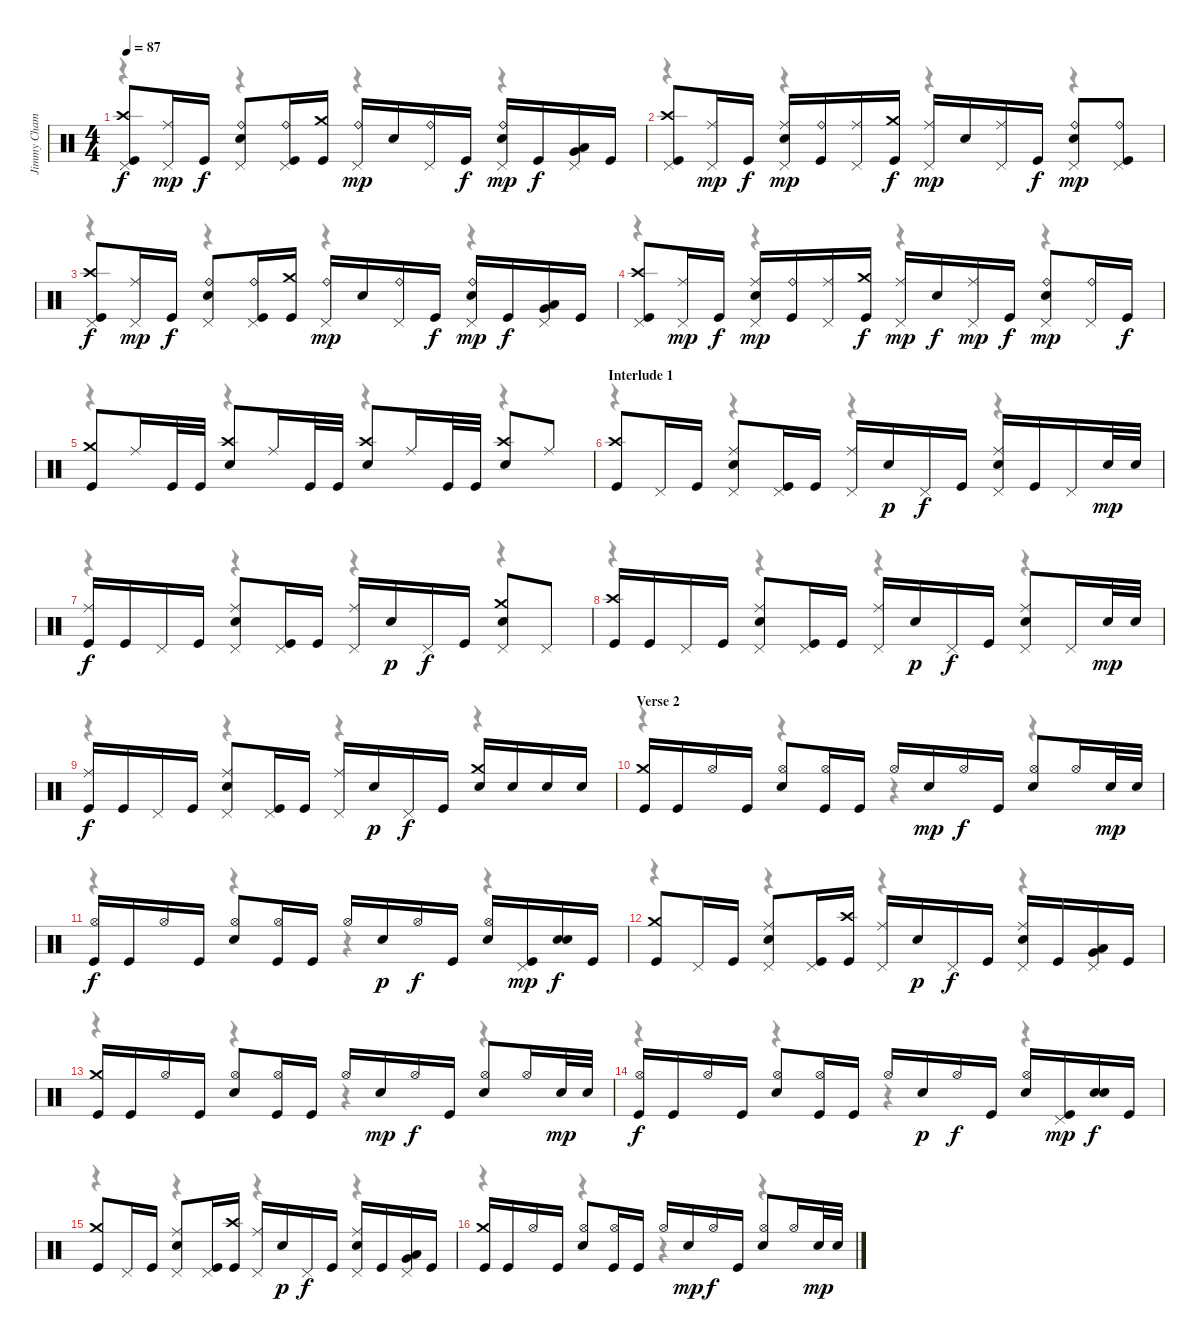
\track ("Jimmy Chamberlin - Drums" "Jimmy Cham") {instrument percussion}
\staff {score}
\articulation defaults
\voice
\ts (4 4)
\tempo 87
\clef neutral
\ks c
("Crash high (hit)" "Pedal Hi-Hat (hit)" "Kick (hit)").8{dy f} ("Ride (middle)" "Pedal Hi-Hat (hit)").16{dy mp} "Kick (hit)".16{dy f} ("Ride (bell)" "Pedal Hi-Hat (hit)" "Snare (hit) 2").8 ("Ride (bell)" "Pedal Hi-Hat (hit)" "Kick (hit)").16 ("Crash medium (hit)" "Kick (hit)").16 ("Ride (bell)" "Pedal Hi-Hat (hit)").16{dy mp} "Snare (hit) 2".16 ("Ride (bell)" "Pedal Hi-Hat (hit)").16 "Kick (hit)".16{dy f} ("Ride (bell)" "Pedal Hi-Hat (hit)" "Snare (hit) 2").16{dy mp} "Kick (hit)".16{dy f} ("Pedal Hi-Hat (hit)" "Low Tom (hit)" "Very Low Tom (hit)").16 "Kick (hit)".16 |
("Crash high (hit)" "Pedal Hi-Hat (hit)" "Kick (hit)").8 ("Ride (middle)" "Pedal Hi-Hat (hit)").16{dy mp} "Kick (hit)".16{dy f} ("Ride (middle)" "Pedal Hi-Hat (hit)" "Snare (hit) 2").16{dy mp} ("Ride (bell)" "Kick (hit)").16 ("Ride (middle)" "Pedal Hi-Hat (hit)").16 ("Crash medium (hit)" "Kick (hit)").16{dy f} ("Ride (middle)" "Pedal Hi-Hat (hit)").16{dy mp} "Snare (hit) 2".16 ("Ride (middle)" "Pedal Hi-Hat (hit)").16 "Kick (hit)".16{dy f} ("Ride (bell)" "Pedal Hi-Hat (hit)" "Snare (hit) 2").8{dy mp} ("Ride (bell)" "Pedal Hi-Hat (hit)" "Kick (hit)").8 |
("Crash high (hit)" "Pedal Hi-Hat (hit)" "Kick (hit)").8{dy f} ("Ride (middle)" "Pedal Hi-Hat (hit)").16{dy mp} "Kick (hit)".16{dy f} ("Ride (bell)" "Pedal Hi-Hat (hit)" "Snare (hit) 2").8 ("Ride (bell)" "Pedal Hi-Hat (hit)" "Kick (hit)").16 ("Crash medium (hit)" "Kick (hit)").16 ("Ride (bell)" "Pedal Hi-Hat (hit)").16{dy mp} "Snare (hit) 2".16 ("Ride (bell)" "Pedal Hi-Hat (hit)").16 "Kick (hit)".16{dy f} ("Ride (bell)" "Pedal Hi-Hat (hit)" "Snare (hit) 2").16{dy mp} "Kick (hit)".16{dy f} ("Pedal Hi-Hat (hit)" "Low Tom (hit)" "Very Low Tom (hit)").16 "Kick (hit)".16 |
("Crash high (hit)" "Pedal Hi-Hat (hit)" "Kick (hit)").8 ("Ride (middle)" "Pedal Hi-Hat (hit)").16{dy mp} "Kick (hit)".16{dy f} ("Ride (middle)" "Pedal Hi-Hat (hit)" "Snare (hit) 2").16{dy mp} ("Ride (bell)" "Kick (hit)").16 ("Ride (middle)" "Pedal Hi-Hat (hit)").16 ("Crash medium (hit)" "Kick (hit)").16{dy f} ("Ride (middle)" "Pedal Hi-Hat (hit)").16{dy mp} "Snare (hit) 2".16{dy f} ("Ride (middle)" "Pedal Hi-Hat (hit)").16{dy mp} "Kick (hit)".16{dy f} ("Ride (bell)" "Pedal Hi-Hat (hit)" "Snare (hit) 2").8{dy mp} ("Ride (bell)" "Pedal Hi-Hat (hit)").16 "Kick (hit)".16{dy f} |
("Crash medium (hit)" "Kick (hit)").8 "Ride (middle)".16 "Kick (hit)".32 "Kick (hit)".32 ("Crash high (hit)" "Snare (hit) 2").8 "Ride (middle)".16 "Kick (hit)".32 "Kick (hit)".32 ("Crash high (hit)" "Snare (hit) 2").8 "Ride (middle)".16 "Kick (hit)".32 "Kick (hit)".32 ("Crash high (hit)" "Snare (hit) 2").8 "Ride (middle)".8 |
\section ("" "Interlude 1")
("Crash high (hit)" "Kick (hit)").8 "Pedal Hi-Hat (hit)".16 "Kick (hit)".16 ("Ride (middle)" "Pedal Hi-Hat (hit)" "Snare (hit) 2").8 ("Pedal Hi-Hat (hit)" "Kick (hit)").16 "Kick (hit)".16 ("Ride (middle)" "Pedal Hi-Hat (hit)").16 "Snare (hit) 2".16{dy p} "Pedal Hi-Hat (hit)".16{dy f} "Kick (hit)".16 ("Ride (middle)" "Pedal Hi-Hat (hit)" "Snare (hit) 2").16 "Kick (hit)".16 "Pedal Hi-Hat (hit)".16 "Snare (hit) 2".32{dy mp} "Snare (hit) 2".32 |
("Ride (middle)" "Kick (hit)").16{dy f} "Kick (hit)".16 "Pedal Hi-Hat (hit)".16 "Kick (hit)".16 ("Ride (middle)" "Pedal Hi-Hat (hit)" "Snare (hit) 2").8 ("Pedal Hi-Hat (hit)" "Kick (hit)").16 "Kick (hit)".16 ("Ride (middle)" "Pedal Hi-Hat (hit)").16 "Snare (hit) 2".16{dy p} "Pedal Hi-Hat (hit)".16{dy f} "Kick (hit)".16 ("Crash medium (hit)" "Pedal Hi-Hat (hit)" "Snare (hit) 2").8 "Pedal Hi-Hat (hit)".8 |
("Crash high (hit)" "Kick (hit)").16 "Kick (hit)".16 "Pedal Hi-Hat (hit)".16 "Kick (hit)".16 ("Ride (middle)" "Pedal Hi-Hat (hit)" "Snare (hit) 2").8 ("Pedal Hi-Hat (hit)" "Kick (hit)").16 "Kick (hit)".16 ("Ride (middle)" "Pedal Hi-Hat (hit)").16 "Snare (hit) 2".16{dy p} "Pedal Hi-Hat (hit)".16{dy f} "Kick (hit)".16 ("Ride (middle)" "Pedal Hi-Hat (hit)" "Snare (hit) 2").8 "Pedal Hi-Hat (hit)".16 "Snare (hit) 2".32{dy mp} "Snare (hit) 2".32 |
("Ride (middle)" "Kick (hit)").16{dy f} "Kick (hit)".16 "Pedal Hi-Hat (hit)".16 "Kick (hit)".16 ("Ride (middle)" "Pedal Hi-Hat (hit)" "Snare (hit) 2").8 ("Pedal Hi-Hat (hit)" "Kick (hit)").16 "Kick (hit)".16 ("Ride (middle)" "Pedal Hi-Hat (hit)").16 "Snare (hit) 2".16{dy p} "Pedal Hi-Hat (hit)".16{dy f} "Kick (hit)".16 ("Crash medium (hit)" "Snare (hit) 2").16 "Snare (hit) 2".16 "Snare (hit) 2".16 "Snare (hit) 2".16 |
\section ("" "Verse 2")
("Crash medium (hit)" "Kick (hit)").16 "Kick (hit)".16 "Hi-Hat (open)".16 "Kick (hit)".16 ("Hi-Hat (open)" "Snare (hit) 2").8 ("Hi-Hat (open)" "Kick (hit)").16 "Kick (hit)".16 "Hi-Hat (open)".16 "Snare (hit) 2".16{dy mp} "Hi-Hat (open)".16{dy f} "Kick (hit)".16 ("Hi-Hat (open)" "Snare (hit) 2").8 "Hi-Hat (open)".16 "Snare (hit) 2".32{dy mp} "Snare (hit) 2".32 |
("Hi-Hat (open)" "Kick (hit)").16{dy f} "Kick (hit)".16 "Hi-Hat (open)".16 "Kick (hit)".16 ("Hi-Hat (open)" "Snare (hit) 2").8 ("Hi-Hat (open)" "Kick (hit)").16 "Kick (hit)".16 "Hi-Hat (open)".16 "Snare (hit) 2".16{dy p} "Hi-Hat (open)".16{dy f} "Kick (hit)".16 ("Hi-Hat (open)" "Snare (hit) 2").16 ("Pedal Hi-Hat (hit)" "Kick (hit)").16{dy mp} ("Snare (hit) 2" "Snare (hit) 2").16{dy f} "Kick (hit)".16 |
("Crash medium (hit)" "Kick (hit)").8 "Pedal Hi-Hat (hit)".16 "Kick (hit)".16 ("Ride (middle)" "Pedal Hi-Hat (hit)" "Snare (hit) 2").8 ("Pedal Hi-Hat (hit)" "Kick (hit)").16 ("Crash high (hit)" "Kick (hit)").16 ("Ride (middle)" "Pedal Hi-Hat (hit)").16 "Snare (hit) 2".16{dy p} "Pedal Hi-Hat (hit)".16{dy f} "Kick (hit)".16 ("Ride (middle)" "Pedal Hi-Hat (hit)" "Snare (hit) 2").16 "Kick (hit)".16 ("Pedal Hi-Hat (hit)" "Low Tom (hit)" "Very Low Tom (hit)").16 "Kick (hit)".16 |
("Crash medium (hit)" "Kick (hit)").16 "Kick (hit)".16 "Hi-Hat (open)".16 "Kick (hit)".16 ("Hi-Hat (open)" "Snare (hit) 2").8 ("Hi-Hat (open)" "Kick (hit)").16 "Kick (hit)".16 "Hi-Hat (open)".16 "Snare (hit) 2".16{dy mp} "Hi-Hat (open)".16{dy f} "Kick (hit)".16 ("Hi-Hat (open)" "Snare (hit) 2").8 "Hi-Hat (open)".16 "Snare (hit) 2".32{dy mp} "Snare (hit) 2".32 |
("Hi-Hat (open)" "Kick (hit)").16{dy f} "Kick (hit)".16 "Hi-Hat (open)".16 "Kick (hit)".16 ("Hi-Hat (open)" "Snare (hit) 2").8 ("Hi-Hat (open)" "Kick (hit)").16 "Kick (hit)".16 "Hi-Hat (open)".16 "Snare (hit) 2".16{dy p} "Hi-Hat (open)".16{dy f} "Kick (hit)".16 ("Hi-Hat (open)" "Snare (hit) 2").16 ("Pedal Hi-Hat (hit)" "Kick (hit)").16{dy mp} ("Snare (hit) 2" "Snare (hit) 2").16{dy f} "Kick (hit)".16 |
("Crash medium (hit)" "Kick (hit)").8 "Pedal Hi-Hat (hit)".16 "Kick (hit)".16 ("Ride (middle)" "Pedal Hi-Hat (hit)" "Snare (hit) 2").8 ("Pedal Hi-Hat (hit)" "Kick (hit)").16 ("Crash high (hit)" "Kick (hit)").16 ("Ride (middle)" "Pedal Hi-Hat (hit)").16 "Snare (hit) 2".16{dy p} "Pedal Hi-Hat (hit)".16{dy f} "Kick (hit)".16 ("Ride (middle)" "Pedal Hi-Hat (hit)" "Snare (hit) 2").16 "Kick (hit)".16 ("Pedal Hi-Hat (hit)" "Low Tom (hit)" "Very Low Tom (hit)").16 "Kick (hit)".16 |
("Crash medium (hit)" "Kick (hit)").16 "Kick (hit)".16 "Hi-Hat (open)".16 "Kick (hit)".16 ("Hi-Hat (open)" "Snare (hit) 2").8 ("Hi-Hat (open)" "Kick (hit)").16 "Kick (hit)".16 "Hi-Hat (open)".16 "Snare (hit) 2".16{dy mp} "Hi-Hat (open)".16{dy f} "Kick (hit)".16 ("Hi-Hat (open)" "Snare (hit) 2").8 "Hi-Hat (open)".16 "Snare (hit) 2".32{dy mp} "Snare (hit) 2".32
\voice
\clef neutral
\ottava regular
\simile none
\ks c
r.4{dy f} r.4 r.4 r.4 |
r.4 r.4 r.4 r.4 |
r.4 r.4 r.4 r.4 |
r.4 r.4 r.4 r.4 |
r.4 r.4 r.4 r.4 |
r.4 r.4 r.4 r.4 |
r.4 r.4 r.4 r.4 |
r.4 r.4 r.4 r.4 |
r.4 r.4 r.4 r.4 |
r.4 r.4 r.4 r.4 |
r.4 r.4 r.4 r.4 |
r.4 r.4 r.4 r.4 |
r.4 r.4 r.4 r.4 |
r.4 r.4 r.4 r.4 |
r.4 r.4 r.4 r.4 |
r.4 r.4 r.4 r.4
